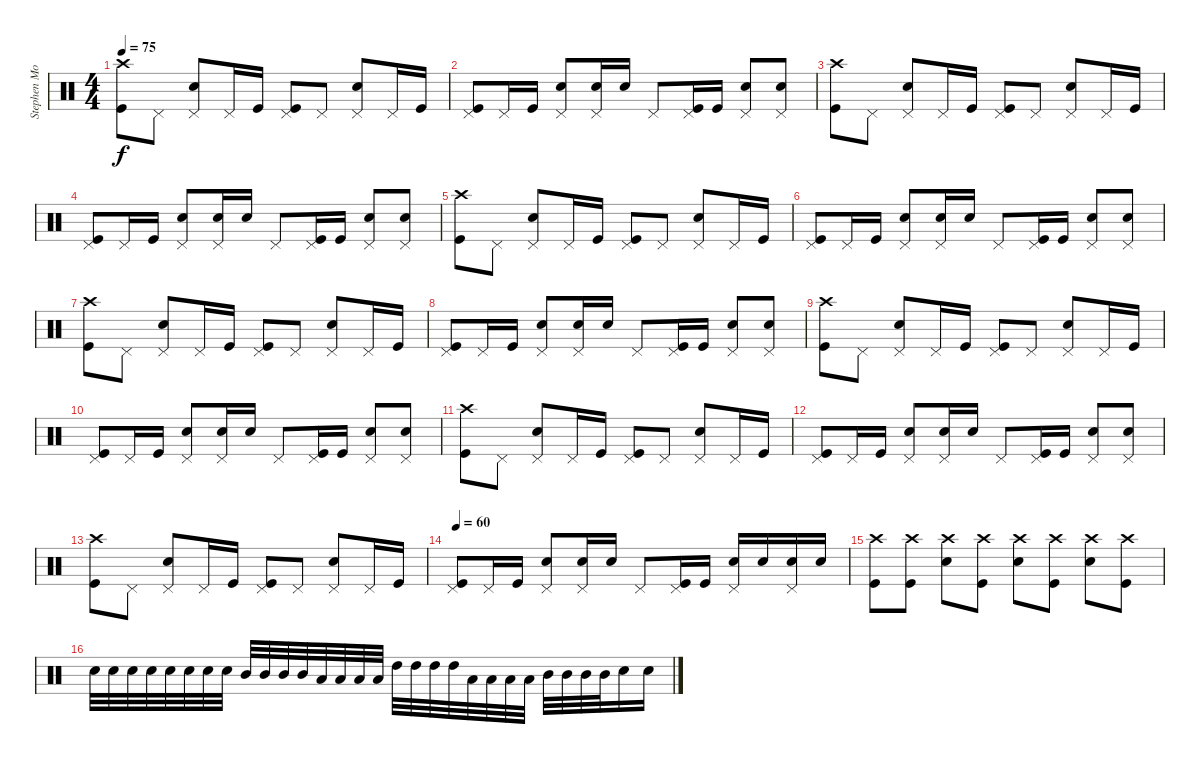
\track ("Stephen Morris (Drums)" "Stephen Mo") {instrument percussion}
\staff {score}
\articulation defaults
\ts (4 4)
\tempo 75
\clef neutral
\ks c
("Crash high (hit)" "Kick (hit)").8{dy f} "Pedal Hi-Hat (hit)".8 ("Pedal Hi-Hat (hit)" "Electric Snare (hit)").8 "Pedal Hi-Hat (hit)".16 "Kick (hit)".16 ("Pedal Hi-Hat (hit)" "Kick (hit)").8 "Pedal Hi-Hat (hit)".8 ("Pedal Hi-Hat (hit)" "Electric Snare (hit)").8 "Pedal Hi-Hat (hit)".16 "Kick (hit)".16 |
("Pedal Hi-Hat (hit)" "Kick (hit)").8 "Pedal Hi-Hat (hit)".16 "Kick (hit)".16 ("Pedal Hi-Hat (hit)" "Electric Snare (hit)").8 ("Pedal Hi-Hat (hit)" "Electric Snare (hit)").16 "Electric Snare (hit)".16 "Pedal Hi-Hat (hit)".8 ("Pedal Hi-Hat (hit)" "Kick (hit)").16 "Kick (hit)".16 ("Pedal Hi-Hat (hit)" "Electric Snare (hit)").8 ("Pedal Hi-Hat (hit)" "Electric Snare (hit)").8 |
("Crash high (hit)" "Kick (hit)").8 "Pedal Hi-Hat (hit)".8 ("Pedal Hi-Hat (hit)" "Electric Snare (hit)").8 "Pedal Hi-Hat (hit)".16 "Kick (hit)".16 ("Pedal Hi-Hat (hit)" "Kick (hit)").8 "Pedal Hi-Hat (hit)".8 ("Pedal Hi-Hat (hit)" "Electric Snare (hit)").8 "Pedal Hi-Hat (hit)".16 "Kick (hit)".16 |
("Pedal Hi-Hat (hit)" "Kick (hit)").8 "Pedal Hi-Hat (hit)".16 "Kick (hit)".16 ("Pedal Hi-Hat (hit)" "Electric Snare (hit)").8 ("Pedal Hi-Hat (hit)" "Electric Snare (hit)").16 "Electric Snare (hit)".16 "Pedal Hi-Hat (hit)".8 ("Pedal Hi-Hat (hit)" "Kick (hit)").16 "Kick (hit)".16 ("Pedal Hi-Hat (hit)" "Electric Snare (hit)").8 ("Pedal Hi-Hat (hit)" "Electric Snare (hit)").8 |
("Crash high (hit)" "Kick (hit)").8 "Pedal Hi-Hat (hit)".8 ("Pedal Hi-Hat (hit)" "Electric Snare (hit)").8 "Pedal Hi-Hat (hit)".16 "Kick (hit)".16 ("Pedal Hi-Hat (hit)" "Kick (hit)").8 "Pedal Hi-Hat (hit)".8 ("Pedal Hi-Hat (hit)" "Electric Snare (hit)").8 "Pedal Hi-Hat (hit)".16 "Kick (hit)".16 |
("Pedal Hi-Hat (hit)" "Kick (hit)").8 "Pedal Hi-Hat (hit)".16 "Kick (hit)".16 ("Pedal Hi-Hat (hit)" "Electric Snare (hit)").8 ("Pedal Hi-Hat (hit)" "Electric Snare (hit)").16 "Electric Snare (hit)".16 "Pedal Hi-Hat (hit)".8 ("Pedal Hi-Hat (hit)" "Kick (hit)").16 "Kick (hit)".16 ("Pedal Hi-Hat (hit)" "Electric Snare (hit)").8 ("Pedal Hi-Hat (hit)" "Electric Snare (hit)").8 |
("Crash high (hit)" "Kick (hit)").8 "Pedal Hi-Hat (hit)".8 ("Pedal Hi-Hat (hit)" "Electric Snare (hit)").8 "Pedal Hi-Hat (hit)".16 "Kick (hit)".16 ("Pedal Hi-Hat (hit)" "Kick (hit)").8 "Pedal Hi-Hat (hit)".8 ("Pedal Hi-Hat (hit)" "Electric Snare (hit)").8 "Pedal Hi-Hat (hit)".16 "Kick (hit)".16 |
("Pedal Hi-Hat (hit)" "Kick (hit)").8 "Pedal Hi-Hat (hit)".16 "Kick (hit)".16 ("Pedal Hi-Hat (hit)" "Electric Snare (hit)").8 ("Pedal Hi-Hat (hit)" "Electric Snare (hit)").16 "Electric Snare (hit)".16 "Pedal Hi-Hat (hit)".8 ("Pedal Hi-Hat (hit)" "Kick (hit)").16 "Kick (hit)".16 ("Pedal Hi-Hat (hit)" "Electric Snare (hit)").8 ("Pedal Hi-Hat (hit)" "Electric Snare (hit)").8 |
("Crash high (hit)" "Kick (hit)").8 "Pedal Hi-Hat (hit)".8 ("Pedal Hi-Hat (hit)" "Electric Snare (hit)").8 "Pedal Hi-Hat (hit)".16 "Kick (hit)".16 ("Pedal Hi-Hat (hit)" "Kick (hit)").8 "Pedal Hi-Hat (hit)".8 ("Pedal Hi-Hat (hit)" "Electric Snare (hit)").8 "Pedal Hi-Hat (hit)".16 "Kick (hit)".16 |
("Pedal Hi-Hat (hit)" "Kick (hit)").8 "Pedal Hi-Hat (hit)".16 "Kick (hit)".16 ("Pedal Hi-Hat (hit)" "Electric Snare (hit)").8 ("Pedal Hi-Hat (hit)" "Electric Snare (hit)").16 "Electric Snare (hit)".16 "Pedal Hi-Hat (hit)".8 ("Pedal Hi-Hat (hit)" "Kick (hit)").16 "Kick (hit)".16 ("Pedal Hi-Hat (hit)" "Electric Snare (hit)").8 ("Pedal Hi-Hat (hit)" "Electric Snare (hit)").8 |
("Crash high (hit)" "Kick (hit)").8 "Pedal Hi-Hat (hit)".8 ("Pedal Hi-Hat (hit)" "Electric Snare (hit)").8 "Pedal Hi-Hat (hit)".16 "Kick (hit)".16 ("Pedal Hi-Hat (hit)" "Kick (hit)").8 "Pedal Hi-Hat (hit)".8 ("Pedal Hi-Hat (hit)" "Electric Snare (hit)").8 "Pedal Hi-Hat (hit)".16 "Kick (hit)".16 |
("Pedal Hi-Hat (hit)" "Kick (hit)").8 "Pedal Hi-Hat (hit)".16 "Kick (hit)".16 ("Pedal Hi-Hat (hit)" "Electric Snare (hit)").8 ("Pedal Hi-Hat (hit)" "Electric Snare (hit)").16 "Electric Snare (hit)".16 "Pedal Hi-Hat (hit)".8 ("Pedal Hi-Hat (hit)" "Kick (hit)").16 "Kick (hit)".16 ("Pedal Hi-Hat (hit)" "Electric Snare (hit)").8 ("Pedal Hi-Hat (hit)" "Electric Snare (hit)").8 |
("Crash high (hit)" "Kick (hit)").8 "Pedal Hi-Hat (hit)".8 ("Pedal Hi-Hat (hit)" "Electric Snare (hit)").8 "Pedal Hi-Hat (hit)".16 "Kick (hit)".16 ("Pedal Hi-Hat (hit)" "Kick (hit)").8 "Pedal Hi-Hat (hit)".8 ("Pedal Hi-Hat (hit)" "Electric Snare (hit)").8 "Pedal Hi-Hat (hit)".16 "Kick (hit)".16 |
\tempo 60
("Pedal Hi-Hat (hit)" "Kick (hit)").8 "Pedal Hi-Hat (hit)".16 "Kick (hit)".16 ("Pedal Hi-Hat (hit)" "Electric Snare (hit)").8 ("Pedal Hi-Hat (hit)" "Electric Snare (hit)").16 "Electric Snare (hit)".16 "Pedal Hi-Hat (hit)".8 ("Pedal Hi-Hat (hit)" "Kick (hit)").16 "Kick (hit)".16 ("Pedal Hi-Hat (hit)" "Electric Snare (hit)").16 "Electric Snare (hit)".16 ("Pedal Hi-Hat (hit)" "Electric Snare (hit)").16 "Electric Snare (hit)".16 |
("Crash high (hit)" "Kick (hit)").8 ("Crash high (hit)" "Kick (hit)").8 ("Crash high (hit)" "Snare (hit) 2").8 ("Crash high (hit)" "Kick (hit)").8 ("Crash high (hit)" "Snare (hit) 2").8 ("Crash high (hit)" "Kick (hit)").8 ("Crash high (hit)" "Snare (hit) 2").8 ("Crash high (hit)" "Kick (hit)").8 |
"Electric Snare (hit)".32 "Electric Snare (hit)".32 "Electric Snare (hit)".32 "Electric Snare (hit)".32 "Electric Snare (hit)".32 "Electric Snare (hit)".32 "Electric Snare (hit)".32 "Electric Snare (hit)".32 "Mid Tom (hit)".32 "Mid Tom (hit)".32 "Mid Tom (hit)".32 "Mid Tom (hit)".32 "Low Tom (hit)".32 "Low Tom (hit)".32 "Low Tom (hit)".32 "Low Tom (hit)".32 "High Tom (hit)".32 "High Tom (hit)".32 "High Tom (hit)".32 "High Tom (hit)".32 "Low Tom (hit)".32 "Low Tom (hit)".32 "Low Tom (hit)".32 "Low Tom (hit)".32 "Mid Tom (hit)".32 "Mid Tom (hit)".32 "Mid Tom (hit)".32 "Mid Tom (hit)".32 "Electric Snare (hit)".16 "Electric Snare (hit)".16
